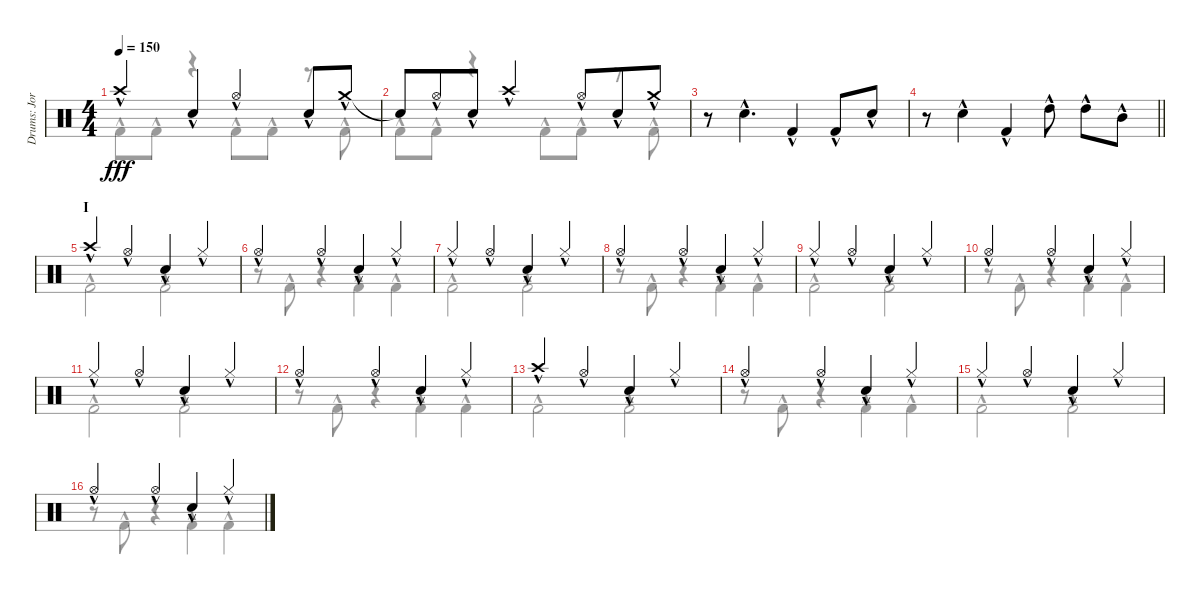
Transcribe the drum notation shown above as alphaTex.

\track ("Drums: Jorg" "Drums: Jor") {instrument percussion}
\staff {score}
\articulation defaults
\voice
\ts (4 4)
\tempo 150
\clef neutral
\ks c "Crash high (hit)"{hac}.4{dy fff beam merge} "Snare (hit) 2"{hac}.4 "Hi-Hat (open)"{hac}.4{beam merge} "Snare (hit) 2"{hac}.8 "Crash medium (hit)"{hac}.8
|
"Snare (hit)"{t}.8 "Hi-Hat (open)"{hac}.8{beam merge} "Snare (hit) 2"{hac}.8 "Crash high (hit)"{hac}.4 "Hi-Hat (open)"{hac}.8{beam merge} "Snare (hit) 2"{hac}.8 "Crash medium (hit)"{hac}.8 |
r.8 "Electric Snare (hit)"{hac}.4{d} "Kick (hit) 2"{hac}.4 "Kick (hit) 2"{hac}.8 "Electric Snare (hit)"{hac}.8 |
\barLineRight lightlight
r.8 "Electric Snare (hit)"{hac}.4 "Kick (hit) 2"{hac}.4 "High Tom (hit)"{hac}.8 "High Tom (hit)"{hac}.8 "Mid Tom (hit)"{hac}.8 |
\section ("" "I")
"Crash high (hit)"{hac}.4 "Hi-Hat (open)"{hac}.4{beam merge} "Snare (hit) 2"{hac}.4 "Hi-Hat (closed)"{hac}.4 |
"Hi-Hat (open)"{hac}.4 "Hi-Hat (open)"{hac}.4{beam merge} "Snare (hit) 2"{hac}.4 "Hi-Hat (closed)"{hac}.4 |
"Hi-Hat (closed)"{hac}.4 "Hi-Hat (open)"{hac}.4{beam merge} "Snare (hit) 2"{hac}.4 "Hi-Hat (closed)"{hac}.4 |
"Hi-Hat (open)"{hac}.4 "Hi-Hat (open)"{hac}.4{beam merge} "Snare (hit) 2"{hac}.4 "Hi-Hat (closed)"{hac}.4 |
"Hi-Hat (closed)"{hac}.4 "Hi-Hat (open)"{hac}.4{beam merge} "Snare (hit) 2"{hac}.4 "Hi-Hat (closed)"{hac}.4 |
"Hi-Hat (open)"{hac}.4 "Hi-Hat (open)"{hac}.4{beam merge} "Snare (hit) 2"{hac}.4 "Hi-Hat (closed)"{hac}.4 |
"Hi-Hat (closed)"{hac}.4 "Hi-Hat (open)"{hac}.4{beam merge} "Snare (hit) 2"{hac}.4 "Hi-Hat (closed)"{hac}.4 |
"Hi-Hat (open)"{hac}.4 "Hi-Hat (open)"{hac}.4{beam merge} "Snare (hit) 2"{hac}.4 "Hi-Hat (closed)"{hac}.4 |
"Crash high (hit)"{hac}.4 "Hi-Hat (open)"{hac}.4{beam merge} "Snare (hit) 2"{hac}.4 "Hi-Hat (closed)"{hac}.4 |
"Hi-Hat (open)"{hac}.4 "Hi-Hat (open)"{hac}.4{beam merge} "Snare (hit) 2"{hac}.4 "Hi-Hat (closed)"{hac}.4 |
"Hi-Hat (closed)"{hac}.4 "Hi-Hat (open)"{hac}.4{beam merge} "Snare (hit) 2"{hac}.4 "Hi-Hat (closed)"{hac}.4 |
"Hi-Hat (open)"{hac}.4 "Hi-Hat (open)"{hac}.4{beam merge} "Snare (hit) 2"{hac}.4 "Hi-Hat (closed)"{hac}.4
\voice
\clef neutral
\ottava regular
\simile none
\ks c "Kick (hit) 2"{hac}.8{dy fff} "Kick (hit) 2"{hac}.8
r.4 "Kick (hit) 2"{hac}.8 "Kick (hit) 2"{hac}.8 r.8 "Kick (hit) 2"{hac}.8 |
"Kick (hit) 2"{hac}.8 "Kick (hit) 2"{hac}.8 r.4 "Kick (hit) 2"{hac}.8 "Kick (hit) 2"{hac}.8 r.8 "Kick (hit) 2"{hac}.8 |
|
\barLineRight lightlight
|
"Kick (hit) 2"{hac}.2 "Kick (hit) 2"{hac}.2 |
r.8 "Kick (hit) 2"{hac}.8 r.4 "Kick (hit) 2"{hac}.4 "Kick (hit) 2"{hac}.4 |
"Kick (hit) 2"{hac}.2 "Kick (hit) 2"{hac}.2 |
r.8 "Kick (hit) 2"{hac}.8 r.4 "Kick (hit) 2"{hac}.4 "Kick (hit) 2"{hac}.4 |
"Kick (hit) 2"{hac}.2 "Kick (hit) 2"{hac}.2 |
r.8 "Kick (hit) 2"{hac}.8 r.4 "Kick (hit) 2"{hac}.4 "Kick (hit) 2"{hac}.4 |
"Kick (hit) 2"{hac}.2 "Kick (hit) 2"{hac}.2 |
r.8 "Kick (hit) 2"{hac}.8 r.4 "Kick (hit) 2"{hac}.4 "Kick (hit) 2"{hac}.4 |
"Kick (hit) 2"{hac}.2 "Kick (hit) 2"{hac}.2 |
r.8 "Kick (hit) 2"{hac}.8 r.4 "Kick (hit) 2"{hac}.4 "Kick (hit) 2"{hac}.4 |
"Kick (hit) 2"{hac}.2 "Kick (hit) 2"{hac}.2 |
r.8 "Kick (hit) 2"{hac}.8 r.4 "Kick (hit) 2"{hac}.4 "Kick (hit) 2"{hac}.4
